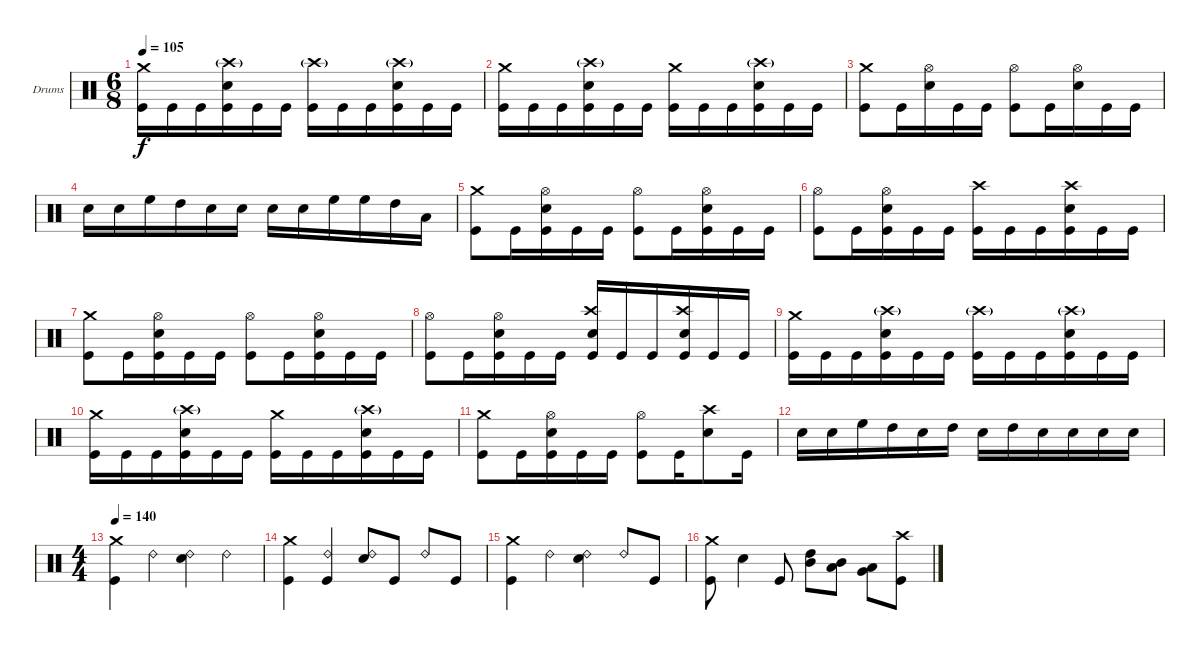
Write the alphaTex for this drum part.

\defaultSystemsLayout 4
\bracketExtendMode groupsimilarinstruments
\firstSystemTrackNameOrientation horizontal
\otherSystemsTrackNameOrientation horizontal
\track ("Stefan Schwarzmann" "Drums") {instrument percussion}
\staff {score}
\articulation defaults
\ts (6 8)
\tempo 105
\clef neutral
\ks c
("Crash medium (hit)" "Kick (hit)").16{dy f} "Kick (hit)".16 "Kick (hit)".16 ("Crash high (hit)"{g} "Snare (hit) 2" "Kick (hit)").16 "Kick (hit)".16 "Kick (hit)".16 ("Crash high (hit)"{g} "Kick (hit)").16 "Kick (hit)".16 "Kick (hit)".16 ("Crash high (hit)"{g} "Snare (hit) 2" "Kick (hit)").16 "Kick (hit)".16 "Kick (hit)".16 |
("Crash medium (hit)" "Kick (hit)").16 "Kick (hit)".16 "Kick (hit)".16 ("Crash high (hit)"{g} "Snare (hit) 2" "Kick (hit)").16 "Kick (hit)".16 "Kick (hit)".16 ("Crash medium (hit)" "Kick (hit)").16 "Kick (hit)".16 "Kick (hit)".16 ("Crash high (hit)"{g} "Snare (hit) 2" "Kick (hit)").16 "Kick (hit)".16 "Kick (hit)".16 |
("Crash medium (hit)" "Kick (hit)").8 "Kick (hit)".16 ("Hi-Hat (open)" "Snare (hit) 2").16 "Kick (hit)".16 "Kick (hit)".16 ("Hi-Hat (open)" "Kick (hit)").8 "Kick (hit)".16 ("Hi-Hat (open)" "Snare (hit) 2").16 "Kick (hit)".16 "Kick (hit)".16 |
"Snare (hit) 2".16 "Snare (hit) 2".16 "High Floor Tom (hit)".16 "High Tom (hit)".16 "Snare (hit) 2".16 "Snare (hit) 2".16 "Snare (hit) 2".16 "Snare (hit) 2".16 "High Floor Tom (hit)".16 "High Floor Tom (hit)".16 "High Tom (hit)".16 "Low Tom (hit)".16 |
("Crash medium (hit)" "Kick (hit)").8 "Kick (hit)".16 ("Hi-Hat (open)" "Snare (hit) 2" "Kick (hit)").16 "Kick (hit)".16 "Kick (hit)".16 ("Hi-Hat (open)" "Kick (hit)").8 "Kick (hit)".16 ("Hi-Hat (open)" "Snare (hit) 2" "Kick (hit)").16 "Kick (hit)".16 "Kick (hit)".16 |
("Hi-Hat (open)" "Kick (hit)").8 "Kick (hit)".16 ("Hi-Hat (open)" "Snare (hit) 2" "Kick (hit)").16 "Kick (hit)".16 "Kick (hit)".16 ("Crash high (hit)" "Kick (hit)").16 "Kick (hit)".16 "Kick (hit)".16 ("Crash high (hit)" "Snare (hit) 2" "Kick (hit)").16 "Kick (hit)".16 "Kick (hit)".16 |
("Crash medium (hit)" "Kick (hit)").8 "Kick (hit)".16 ("Hi-Hat (open)" "Snare (hit) 2" "Kick (hit)").16 "Kick (hit)".16 "Kick (hit)".16 ("Hi-Hat (open)" "Kick (hit)").8 "Kick (hit)".16 ("Hi-Hat (open)" "Snare (hit) 2" "Kick (hit)").16 "Kick (hit)".16 "Kick (hit)".16 |
("Hi-Hat (open)" "Kick (hit)").8 "Kick (hit)".16 ("Hi-Hat (open)" "Snare (hit) 2" "Kick (hit)").16 "Kick (hit)".16 "Kick (hit)".16 ("Crash high (hit)" "Snare (hit) 2" "Kick (hit)").16 "Kick (hit)".16 "Kick (hit)".16 ("Crash high (hit)" "Snare (hit) 2" "Kick (hit)").16 "Kick (hit)".16 "Kick (hit)".16 |
("Crash medium (hit)" "Kick (hit)").16 "Kick (hit)".16 "Kick (hit)".16 ("Crash high (hit)"{g} "Snare (hit) 2" "Kick (hit)").16 "Kick (hit)".16 "Kick (hit)".16 ("Crash high (hit)"{g} "Kick (hit)").16 "Kick (hit)".16 "Kick (hit)".16 ("Crash high (hit)"{g} "Snare (hit) 2" "Kick (hit)").16 "Kick (hit)".16 "Kick (hit)".16 |
("Crash medium (hit)" "Kick (hit)").16 "Kick (hit)".16 "Kick (hit)".16 ("Crash high (hit)"{g} "Snare (hit) 2" "Kick (hit)").16 "Kick (hit)".16 "Kick (hit)".16 ("Crash medium (hit)" "Kick (hit)").16 "Kick (hit)".16 "Kick (hit)".16 ("Crash high (hit)"{g} "Snare (hit) 2" "Kick (hit)").16 "Kick (hit)".16 "Kick (hit)".16 |
("Crash medium (hit)" "Kick (hit)").8 "Kick (hit)".16 ("Hi-Hat (open)" "Snare (hit) 2" "Kick (hit)").16 "Kick (hit)".16 "Kick (hit)".16 ("Hi-Hat (open)" "Kick (hit)").8 "Kick (hit)".16 ("Crash high (hit)" "Snare (hit) 2").8 "Kick (hit)".16 |
"Snare (hit) 2".16 "Snare (hit) 2".16 "High Floor Tom (hit)".16 "High Tom (hit)".16 "Snare (hit) 2".16 "High Tom (hit)".16 "Snare (hit) 2".16 "High Tom (hit)".16 "Snare (hit) 2".16 "Snare (hit) 2".16 "Snare (hit) 2".16 "Snare (hit) 2".16 |
\ts (4 4)
\tempo 140
("Crash medium (hit)" "Kick (hit)").4 "Ride (bell) 2".4 ("Ride (bell) 2" "Snare (hit) 2").4 "Ride (bell) 2".4 |
("Crash medium (hit)" "Kick (hit)").4 ("Ride (bell) 2" "Kick (hit)").4 ("Ride (bell) 2" "Snare (hit) 2").8 "Kick (hit)".8 "Ride (bell) 2".8 "Kick (hit)".8 |
("Crash medium (hit)" "Kick (hit)").4 "Ride (bell) 2".4 ("Ride (bell) 2" "Snare (hit) 2").4 "Ride (bell) 2".8 "Kick (hit)".8 |
("Crash medium (hit)" "Kick (hit)").8 "Snare (hit) 2".4 "Kick (hit)".8 ("High Tom (hit)" "Mid Tom (hit)").8 ("Mid Tom (hit)" "Low Tom (hit)").8 ("Low Tom (hit)" "Very Low Tom (hit)").8 ("Crash high (hit)" "Kick (hit)").8
